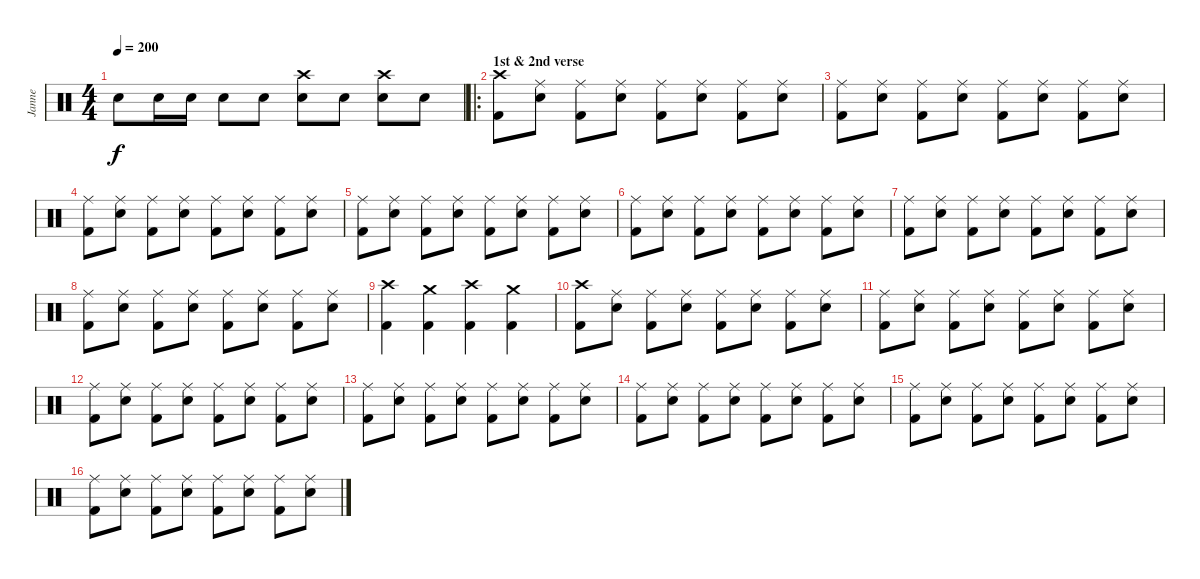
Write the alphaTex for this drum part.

\track ("Janne" "Janne") {instrument percussion}
\staff {score}
\articulation defaults
\ts (4 4)
\tempo 200
\clef neutral
\ks c "Electric Snare (hit)".8{dy f} "Electric Snare (hit)".16 "Electric Snare (hit)".16 "Electric Snare (hit)".8 "Electric Snare (hit)".8
("Crash high (hit)" "Electric Snare (hit)").8 "Electric Snare (hit)".8 ("Crash high (hit)" "Electric Snare (hit)").8 "Electric Snare (hit)".8 |
\ro
\section ("" "1st & 2nd verse")
("Crash high (hit)" "Kick (hit) 2").8 ("Ride (middle)" "Electric Snare (hit)").8 ("Ride (middle)" "Kick (hit) 2").8 ("Ride (middle)" "Electric Snare (hit)").8 ("Ride (middle)" "Kick (hit) 2").8 ("Ride (middle)" "Electric Snare (hit)").8 ("Ride (middle)" "Kick (hit) 2").8 ("Ride (middle)" "Electric Snare (hit)").8 |
("Ride (middle)" "Kick (hit) 2").8 ("Ride (middle)" "Electric Snare (hit)").8 ("Ride (middle)" "Kick (hit) 2").8 ("Ride (middle)" "Electric Snare (hit)").8 ("Ride (middle)" "Kick (hit) 2").8 ("Ride (middle)" "Electric Snare (hit)").8 ("Ride (middle)" "Kick (hit) 2").8 ("Ride (middle)" "Electric Snare (hit)").8 |
("Ride (middle)" "Kick (hit) 2").8 ("Ride (middle)" "Electric Snare (hit)").8 ("Ride (middle)" "Kick (hit) 2").8 ("Ride (middle)" "Electric Snare (hit)").8 ("Ride (middle)" "Kick (hit) 2").8 ("Ride (middle)" "Electric Snare (hit)").8 ("Ride (middle)" "Kick (hit) 2").8 ("Ride (middle)" "Electric Snare (hit)").8 |
("Ride (middle)" "Kick (hit) 2").8 ("Ride (middle)" "Electric Snare (hit)").8 ("Ride (middle)" "Kick (hit) 2").8 ("Ride (middle)" "Electric Snare (hit)").8 ("Ride (middle)" "Kick (hit) 2").8 ("Ride (middle)" "Electric Snare (hit)").8 ("Ride (middle)" "Kick (hit) 2").8 ("Ride (middle)" "Electric Snare (hit)").8 |
("Ride (middle)" "Kick (hit) 2").8 ("Ride (middle)" "Electric Snare (hit)").8 ("Ride (middle)" "Kick (hit) 2").8 ("Ride (middle)" "Electric Snare (hit)").8 ("Ride (middle)" "Kick (hit) 2").8 ("Ride (middle)" "Electric Snare (hit)").8 ("Ride (middle)" "Kick (hit) 2").8 ("Ride (middle)" "Electric Snare (hit)").8 |
("Ride (middle)" "Kick (hit) 2").8 ("Ride (middle)" "Electric Snare (hit)").8 ("Ride (middle)" "Kick (hit) 2").8 ("Ride (middle)" "Electric Snare (hit)").8 ("Ride (middle)" "Kick (hit) 2").8 ("Ride (middle)" "Electric Snare (hit)").8 ("Ride (middle)" "Kick (hit) 2").8 ("Ride (middle)" "Electric Snare (hit)").8 |
("Ride (middle)" "Kick (hit) 2").8 ("Ride (middle)" "Electric Snare (hit)").8 ("Ride (middle)" "Kick (hit) 2").8 ("Ride (middle)" "Electric Snare (hit)").8 ("Ride (middle)" "Kick (hit) 2").8 ("Ride (middle)" "Electric Snare (hit)").8 ("Ride (middle)" "Kick (hit) 2").8 ("Ride (middle)" "Electric Snare (hit)").8 |
("Crash high (hit)" "Kick (hit) 2").4 ("Crash medium (hit)" "Kick (hit) 2").4 ("Crash high (hit)" "Kick (hit) 2").4 ("Crash medium (hit)" "Kick (hit) 2").4 |
("Crash high (hit)" "Kick (hit) 2").8 ("Ride (middle)" "Electric Snare (hit)").8 ("Ride (middle)" "Kick (hit) 2").8 ("Ride (middle)" "Electric Snare (hit)").8 ("Ride (middle)" "Kick (hit) 2").8 ("Ride (middle)" "Electric Snare (hit)").8 ("Ride (middle)" "Kick (hit) 2").8 ("Ride (middle)" "Electric Snare (hit)").8 |
("Ride (middle)" "Kick (hit) 2").8 ("Ride (middle)" "Electric Snare (hit)").8 ("Ride (middle)" "Kick (hit) 2").8 ("Ride (middle)" "Electric Snare (hit)").8 ("Ride (middle)" "Kick (hit) 2").8 ("Ride (middle)" "Electric Snare (hit)").8 ("Ride (middle)" "Kick (hit) 2").8 ("Ride (middle)" "Electric Snare (hit)").8 |
("Ride (middle)" "Kick (hit) 2").8 ("Ride (middle)" "Electric Snare (hit)").8 ("Ride (middle)" "Kick (hit) 2").8 ("Ride (middle)" "Electric Snare (hit)").8 ("Ride (middle)" "Kick (hit) 2").8 ("Ride (middle)" "Electric Snare (hit)").8 ("Ride (middle)" "Kick (hit) 2").8 ("Ride (middle)" "Electric Snare (hit)").8 |
("Ride (middle)" "Kick (hit) 2").8 ("Ride (middle)" "Electric Snare (hit)").8 ("Ride (middle)" "Kick (hit) 2").8 ("Ride (middle)" "Electric Snare (hit)").8 ("Ride (middle)" "Kick (hit) 2").8 ("Ride (middle)" "Electric Snare (hit)").8 ("Ride (middle)" "Kick (hit) 2").8 ("Ride (middle)" "Electric Snare (hit)").8 |
("Ride (middle)" "Kick (hit) 2").8 ("Ride (middle)" "Electric Snare (hit)").8 ("Ride (middle)" "Kick (hit) 2").8 ("Ride (middle)" "Electric Snare (hit)").8 ("Ride (middle)" "Kick (hit) 2").8 ("Ride (middle)" "Electric Snare (hit)").8 ("Ride (middle)" "Kick (hit) 2").8 ("Ride (middle)" "Electric Snare (hit)").8 |
("Ride (middle)" "Kick (hit) 2").8 ("Ride (middle)" "Electric Snare (hit)").8 ("Ride (middle)" "Kick (hit) 2").8 ("Ride (middle)" "Electric Snare (hit)").8 ("Ride (middle)" "Kick (hit) 2").8 ("Ride (middle)" "Electric Snare (hit)").8 ("Ride (middle)" "Kick (hit) 2").8 ("Ride (middle)" "Electric Snare (hit)").8 |
("Ride (middle)" "Kick (hit) 2").8 ("Ride (middle)" "Electric Snare (hit)").8 ("Ride (middle)" "Kick (hit) 2").8 ("Ride (middle)" "Electric Snare (hit)").8 ("Ride (middle)" "Kick (hit) 2").8 ("Ride (middle)" "Electric Snare (hit)").8 ("Ride (middle)" "Kick (hit) 2").8 ("Ride (middle)" "Electric Snare (hit)").8
